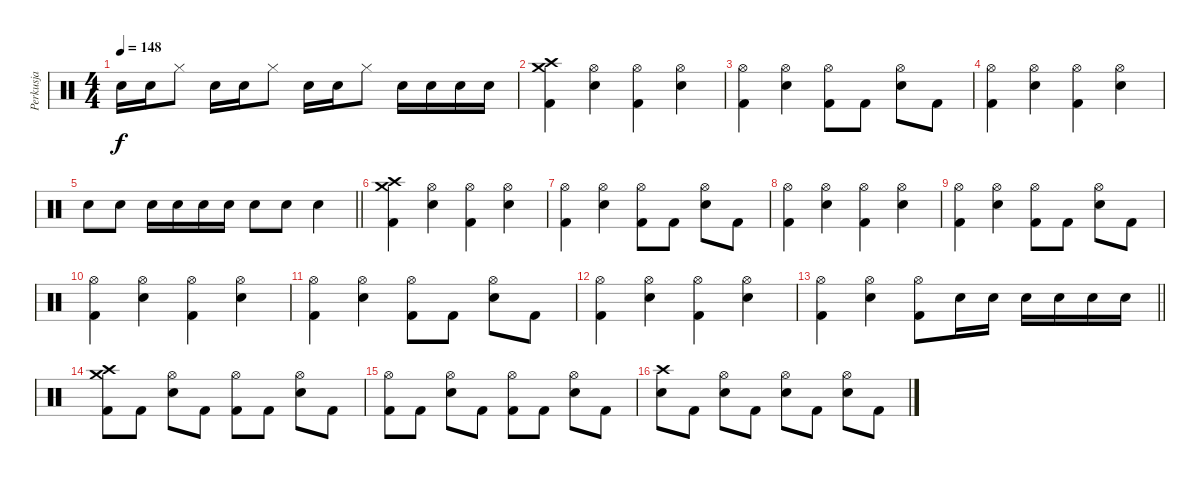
\track ("Perkusja" "Perkusja") {instrument percussion}
\staff {score}
\articulation defaults
\ts (4 4)
\tempo 148
\clef neutral
\ks c "Snare (hit) 2".16{dy f} "Snare (hit) 2".16 "Hi-Hat (closed)".8 "Snare (hit) 2".16 "Snare (hit) 2".16 "Hi-Hat (closed)".8 "Snare (hit) 2".16 "Snare (hit) 2".16 "Hi-Hat (closed)".8 "Snare (hit) 2".16 "Snare (hit) 2".16 "Snare (hit) 2".16 "Snare (hit) 2".16
|
("Crash high (hit)" "Crash medium (hit)" "Kick (hit) 2").4 ("Hi-Hat (open)" "Snare (hit) 2").4 ("Hi-Hat (open)" "Kick (hit) 2").4 ("Hi-Hat (open)" "Snare (hit) 2").4 |
("Hi-Hat (open)" "Kick (hit) 2").4 ("Hi-Hat (open)" "Snare (hit) 2").4 ("Hi-Hat (open)" "Kick (hit) 2").8 "Kick (hit) 2".8 ("Hi-Hat (open)" "Snare (hit) 2").8 "Kick (hit) 2".8 |
("Hi-Hat (open)" "Kick (hit) 2").4 ("Hi-Hat (open)" "Snare (hit) 2").4 ("Hi-Hat (open)" "Kick (hit) 2").4 ("Hi-Hat (open)" "Snare (hit) 2").4 |
\barLineRight lightlight "Snare (hit) 2".8 "Snare (hit) 2".8 "Snare (hit) 2".16 "Snare (hit) 2".16 "Snare (hit) 2".16 "Snare (hit) 2".16 "Snare (hit) 2".8 "Snare (hit) 2".8 "Snare (hit) 2".4
|
("Crash high (hit)" "Crash medium (hit)" "Kick (hit) 2").4 ("Hi-Hat (open)" "Snare (hit) 2").4 ("Hi-Hat (open)" "Kick (hit) 2").4 ("Hi-Hat (open)" "Snare (hit) 2").4 |
("Hi-Hat (open)" "Kick (hit) 2").4 ("Hi-Hat (open)" "Snare (hit) 2").4 ("Hi-Hat (open)" "Kick (hit) 2").8 "Kick (hit) 2".8 ("Hi-Hat (open)" "Snare (hit) 2").8 "Kick (hit) 2".8 |
("Hi-Hat (open)" "Kick (hit) 2").4 ("Hi-Hat (open)" "Snare (hit) 2").4 ("Hi-Hat (open)" "Kick (hit) 2").4 ("Hi-Hat (open)" "Snare (hit) 2").4 |
("Hi-Hat (open)" "Kick (hit) 2").4 ("Hi-Hat (open)" "Snare (hit) 2").4 ("Hi-Hat (open)" "Kick (hit) 2").8 "Kick (hit) 2".8 ("Hi-Hat (open)" "Snare (hit) 2").8 "Kick (hit) 2".8 |
("Hi-Hat (open)" "Kick (hit) 2").4 ("Hi-Hat (open)" "Snare (hit) 2").4 ("Hi-Hat (open)" "Kick (hit) 2").4 ("Hi-Hat (open)" "Snare (hit) 2").4 |
("Hi-Hat (open)" "Kick (hit) 2").4 ("Hi-Hat (open)" "Snare (hit) 2").4 ("Hi-Hat (open)" "Kick (hit) 2").8 "Kick (hit) 2".8 ("Hi-Hat (open)" "Snare (hit) 2").8 "Kick (hit) 2".8 |
("Hi-Hat (open)" "Kick (hit) 2").4 ("Hi-Hat (open)" "Snare (hit) 2").4 ("Hi-Hat (open)" "Kick (hit) 2").4 ("Hi-Hat (open)" "Snare (hit) 2").4 |
\barLineRight lightlight
("Hi-Hat (open)" "Kick (hit) 2").4 ("Hi-Hat (open)" "Snare (hit) 2").4 ("Hi-Hat (open)" "Kick (hit) 2").8 "Snare (hit) 2".16 "Snare (hit) 2".16 "Snare (hit) 2".16 "Snare (hit) 2".16 "Snare (hit) 2".16 "Snare (hit) 2".16 |
("Crash high (hit)" "Crash medium (hit)" "Kick (hit) 2").8 "Kick (hit) 2".8 ("Hi-Hat (open)" "Snare (hit) 2").8 "Kick (hit) 2".8 ("Hi-Hat (open)" "Kick (hit) 2").8 "Kick (hit) 2".8 ("Hi-Hat (open)" "Snare (hit) 2").8 "Kick (hit) 2".8 |
("Hi-Hat (open)" "Kick (hit) 2").8 "Kick (hit) 2".8 ("Hi-Hat (open)" "Snare (hit) 2").8 "Kick (hit) 2".8 ("Hi-Hat (open)" "Kick (hit) 2").8 "Kick (hit) 2".8 ("Hi-Hat (open)" "Snare (hit) 2").8 "Kick (hit) 2".8 |
("Crash high (hit)" "Snare (hit) 2").8 "Kick (hit) 2".8 ("Hi-Hat (open)" "Snare (hit) 2").8 "Kick (hit) 2".8 ("Hi-Hat (open)" "Snare (hit) 2").8 "Kick (hit) 2".8 ("Hi-Hat (open)" "Snare (hit) 2").8 "Kick (hit) 2".8
